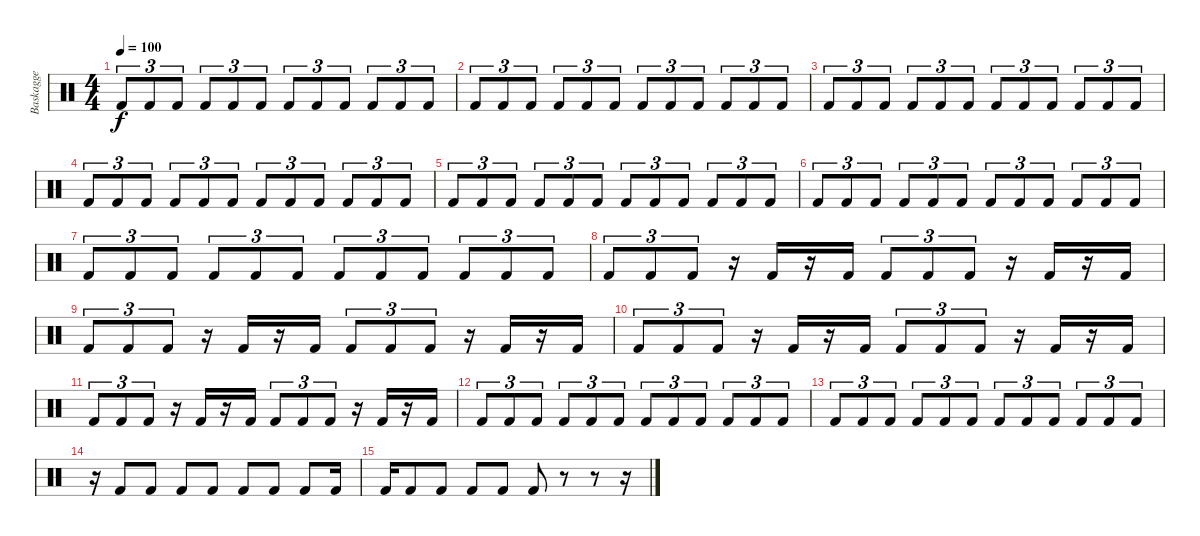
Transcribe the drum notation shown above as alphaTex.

\track ("Baskagge" "Baskagge") {instrument percussion}
\staff {score}
\articulation defaults
\ts (4 4)
\tempo 100
\clef neutral
\ks c "Kick (hit) 2".8{tu (3 2) dy f} "Kick (hit) 2".8{tu (3 2)} "Kick (hit) 2".8{tu (3 2)} "Kick (hit) 2".8{tu (3 2)} "Kick (hit) 2".8{tu (3 2)} "Kick (hit) 2".8{tu (3 2)} "Kick (hit) 2".8{tu (3 2)} "Kick (hit) 2".8{tu (3 2)} "Kick (hit) 2".8{tu (3 2)} "Kick (hit) 2".8{tu (3 2)} "Kick (hit) 2".8{tu (3 2)} "Kick (hit) 2".8{tu (3 2)}
|
"Kick (hit) 2".8{tu (3 2)} "Kick (hit) 2".8{tu (3 2)} "Kick (hit) 2".8{tu (3 2)} "Kick (hit) 2".8{tu (3 2)} "Kick (hit) 2".8{tu (3 2)} "Kick (hit) 2".8{tu (3 2)} "Kick (hit) 2".8{tu (3 2)} "Kick (hit) 2".8{tu (3 2)} "Kick (hit) 2".8{tu (3 2)} "Kick (hit) 2".8{tu (3 2)} "Kick (hit) 2".8{tu (3 2)} "Kick (hit) 2".8{tu (3 2)} |
"Kick (hit) 2".8{tu (3 2)} "Kick (hit) 2".8{tu (3 2)} "Kick (hit) 2".8{tu (3 2)} "Kick (hit) 2".8{tu (3 2)} "Kick (hit) 2".8{tu (3 2)} "Kick (hit) 2".8{tu (3 2)} "Kick (hit) 2".8{tu (3 2)} "Kick (hit) 2".8{tu (3 2)} "Kick (hit) 2".8{tu (3 2)} "Kick (hit) 2".8{tu (3 2)} "Kick (hit) 2".8{tu (3 2)} "Kick (hit) 2".8{tu (3 2)} |
"Kick (hit) 2".8{tu (3 2)} "Kick (hit) 2".8{tu (3 2)} "Kick (hit) 2".8{tu (3 2)} "Kick (hit) 2".8{tu (3 2)} "Kick (hit) 2".8{tu (3 2)} "Kick (hit) 2".8{tu (3 2)} "Kick (hit) 2".8{tu (3 2)} "Kick (hit) 2".8{tu (3 2)} "Kick (hit) 2".8{tu (3 2)} "Kick (hit) 2".8{tu (3 2)} "Kick (hit) 2".8{tu (3 2)} "Kick (hit) 2".8{tu (3 2)} |
"Kick (hit) 2".8{tu (3 2)} "Kick (hit) 2".8{tu (3 2)} "Kick (hit) 2".8{tu (3 2)} "Kick (hit) 2".8{tu (3 2)} "Kick (hit) 2".8{tu (3 2)} "Kick (hit) 2".8{tu (3 2)} "Kick (hit) 2".8{tu (3 2)} "Kick (hit) 2".8{tu (3 2)} "Kick (hit) 2".8{tu (3 2)} "Kick (hit) 2".8{tu (3 2)} "Kick (hit) 2".8{tu (3 2)} "Kick (hit) 2".8{tu (3 2)} |
"Kick (hit) 2".8{tu (3 2)} "Kick (hit) 2".8{tu (3 2)} "Kick (hit) 2".8{tu (3 2)} "Kick (hit) 2".8{tu (3 2)} "Kick (hit) 2".8{tu (3 2)} "Kick (hit) 2".8{tu (3 2)} "Kick (hit) 2".8{tu (3 2)} "Kick (hit) 2".8{tu (3 2)} "Kick (hit) 2".8{tu (3 2)} "Kick (hit) 2".8{tu (3 2)} "Kick (hit) 2".8{tu (3 2)} "Kick (hit) 2".8{tu (3 2)} |
"Kick (hit) 2".8{tu (3 2)} "Kick (hit) 2".8{tu (3 2)} "Kick (hit) 2".8{tu (3 2)} "Kick (hit) 2".8{tu (3 2)} "Kick (hit) 2".8{tu (3 2)} "Kick (hit) 2".8{tu (3 2)} "Kick (hit) 2".8{tu (3 2)} "Kick (hit) 2".8{tu (3 2)} "Kick (hit) 2".8{tu (3 2)} "Kick (hit) 2".8{tu (3 2)} "Kick (hit) 2".8{tu (3 2)} "Kick (hit) 2".8{tu (3 2)} |
"Kick (hit) 2".8{tu (3 2)} "Kick (hit) 2".8{tu (3 2)} "Kick (hit) 2".8{tu (3 2)} r.16 "Kick (hit) 2".16 r.16 "Kick (hit) 2".16 "Kick (hit) 2".8{tu (3 2)} "Kick (hit) 2".8{tu (3 2)} "Kick (hit) 2".8{tu (3 2)} r.16 "Kick (hit) 2".16 r.16 "Kick (hit) 2".16 |
"Kick (hit) 2".8{tu (3 2)} "Kick (hit) 2".8{tu (3 2)} "Kick (hit) 2".8{tu (3 2)} r.16 "Kick (hit) 2".16 r.16 "Kick (hit) 2".16 "Kick (hit) 2".8{tu (3 2)} "Kick (hit) 2".8{tu (3 2)} "Kick (hit) 2".8{tu (3 2)} r.16 "Kick (hit) 2".16 r.16 "Kick (hit) 2".16 |
"Kick (hit) 2".8{tu (3 2)} "Kick (hit) 2".8{tu (3 2)} "Kick (hit) 2".8{tu (3 2)} r.16 "Kick (hit) 2".16 r.16 "Kick (hit) 2".16 "Kick (hit) 2".8{tu (3 2)} "Kick (hit) 2".8{tu (3 2)} "Kick (hit) 2".8{tu (3 2)} r.16 "Kick (hit) 2".16 r.16 "Kick (hit) 2".16 |
"Kick (hit) 2".8{tu (3 2)} "Kick (hit) 2".8{tu (3 2)} "Kick (hit) 2".8{tu (3 2)} r.16 "Kick (hit) 2".16 r.16 "Kick (hit) 2".16 "Kick (hit) 2".8{tu (3 2)} "Kick (hit) 2".8{tu (3 2)} "Kick (hit) 2".8{tu (3 2)} r.16 "Kick (hit) 2".16 r.16 "Kick (hit) 2".16 |
"Kick (hit) 2".8{tu (3 2)} "Kick (hit) 2".8{tu (3 2)} "Kick (hit) 2".8{tu (3 2)} "Kick (hit) 2".8{tu (3 2)} "Kick (hit) 2".8{tu (3 2)} "Kick (hit) 2".8{tu (3 2)} "Kick (hit) 2".8{tu (3 2)} "Kick (hit) 2".8{tu (3 2)} "Kick (hit) 2".8{tu (3 2)} "Kick (hit) 2".8{tu (3 2)} "Kick (hit) 2".8{tu (3 2)} "Kick (hit) 2".8{tu (3 2)} |
"Kick (hit) 2".8{tu (3 2)} "Kick (hit) 2".8{tu (3 2)} "Kick (hit) 2".8{tu (3 2)} "Kick (hit) 2".8{tu (3 2)} "Kick (hit) 2".8{tu (3 2)} "Kick (hit) 2".8{tu (3 2)} "Kick (hit) 2".8{tu (3 2)} "Kick (hit) 2".8{tu (3 2)} "Kick (hit) 2".8{tu (3 2)} "Kick (hit) 2".8{tu (3 2)} "Kick (hit) 2".8{tu (3 2)} "Kick (hit) 2".8{tu (3 2)} |
r.16 "Kick (hit) 2".8 "Kick (hit) 2".8 "Kick (hit) 2".8 "Kick (hit) 2".8 "Kick (hit) 2".8 "Kick (hit) 2".8 "Kick (hit) 2".8 "Kick (hit) 2".16 |
"Kick (hit) 2".16 "Kick (hit) 2".8 "Kick (hit) 2".8 "Kick (hit) 2".8 "Kick (hit) 2".8 "Kick (hit) 2".8 r.8 r.8 r.16
